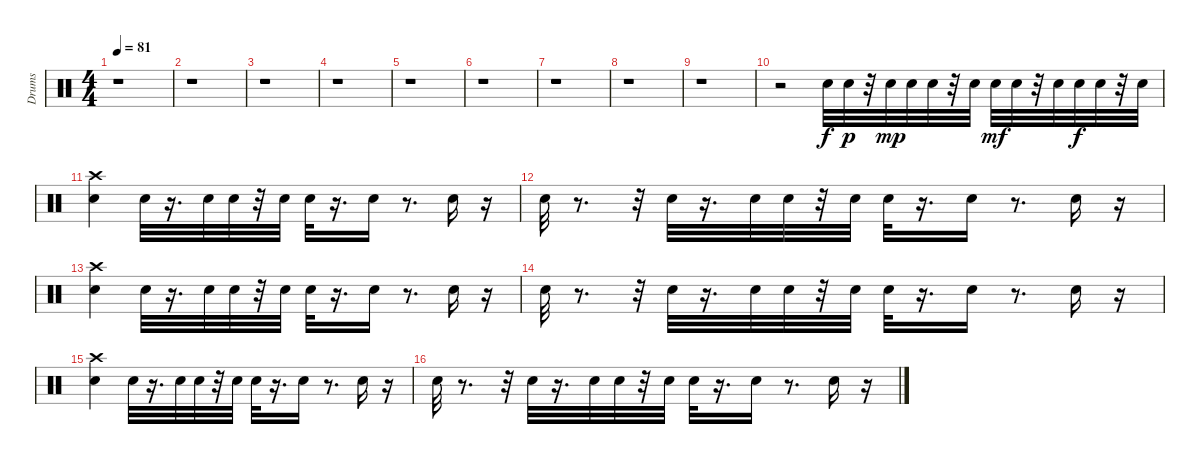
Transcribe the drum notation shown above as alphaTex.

\track ("Drums" "Drums") {instrument percussion}
\staff {score}
\articulation defaults
\ts (4 4)
\tempo 81
\clef neutral
\ks c
r.1{dy f} |
r.1 |
r.1 |
r.1 |
r.1 |
r.1 |
r.1 |
r.1 |
r.1 |
r.2 "Snare (hit) 2".32 "Snare (hit) 2".32{dy p} r.32 "Snare (hit) 2".32{dy mp} "Snare (hit) 2".32 "Snare (hit) 2".32 r.32 "Snare (hit) 2".32 "Snare (hit) 2".32{dy mf} "Snare (hit) 2".32 r.32 "Snare (hit) 2".32 "Snare (hit) 2".32{dy f} "Snare (hit) 2".32 r.32 "Snare (hit) 2".32 |
("Crash high (hit)" "Snare (hit) 2").4 "Snare (hit) 2".32 r.16{d} "Snare (hit) 2".32 "Snare (hit) 2".32 r.32 "Snare (hit) 2".32 "Snare (hit) 2".32 r.16{d} "Snare (hit) 2".16 r.8{d} "Snare (hit) 2".16 r.16 |
"Snare (hit) 2".32 r.8{d} r.32 "Snare (hit) 2".32 r.16{d} "Snare (hit) 2".32 "Snare (hit) 2".32 r.32 "Snare (hit) 2".32 "Snare (hit) 2".32 r.16{d} "Snare (hit) 2".16 r.8{d} "Snare (hit) 2".16 r.16 |
("Crash high (hit)" "Snare (hit) 2").4 "Snare (hit) 2".32 r.16{d} "Snare (hit) 2".32 "Snare (hit) 2".32 r.32 "Snare (hit) 2".32 "Snare (hit) 2".32 r.16{d} "Snare (hit) 2".16 r.8{d} "Snare (hit) 2".16 r.16 |
"Snare (hit) 2".32 r.8{d} r.32 "Snare (hit) 2".32 r.16{d} "Snare (hit) 2".32 "Snare (hit) 2".32 r.32 "Snare (hit) 2".32 "Snare (hit) 2".32 r.16{d} "Snare (hit) 2".16 r.8{d} "Snare (hit) 2".16 r.16 |
("Crash high (hit)" "Snare (hit) 2").4 "Snare (hit) 2".32 r.16{d} "Snare (hit) 2".32 "Snare (hit) 2".32 r.32 "Snare (hit) 2".32 "Snare (hit) 2".32 r.16{d} "Snare (hit) 2".16 r.8{d} "Snare (hit) 2".16 r.16 |
"Snare (hit) 2".32 r.8{d} r.32 "Snare (hit) 2".32 r.16{d} "Snare (hit) 2".32 "Snare (hit) 2".32 r.32 "Snare (hit) 2".32 "Snare (hit) 2".32 r.16{d} "Snare (hit) 2".16 r.8{d} "Snare (hit) 2".16 r.16
